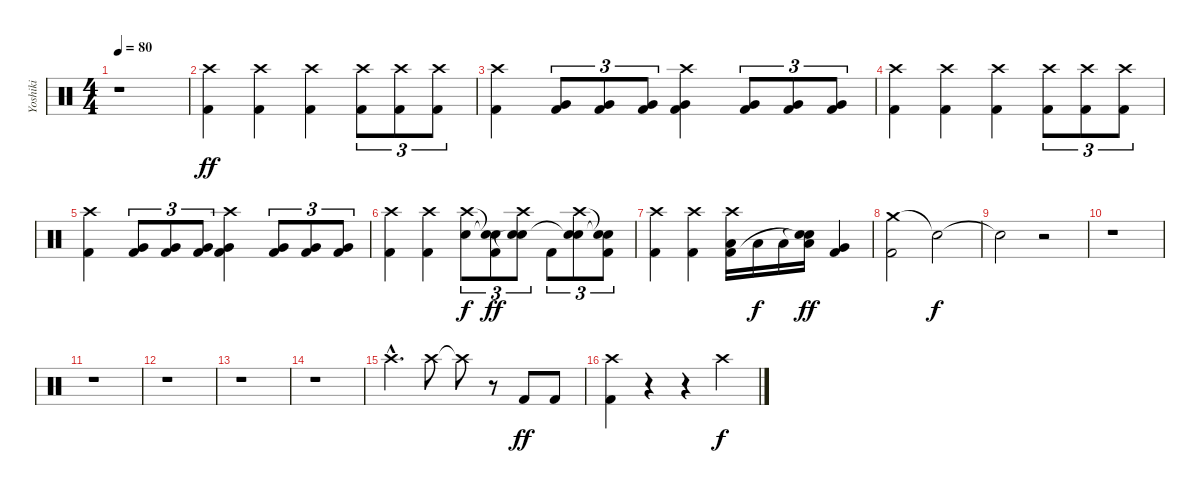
\track ("Yoshiki" "Yoshiki") {instrument percussion}
\staff {score}
\articulation defaults
\ts (4 4)
\tempo 80
\clef neutral
\ks c
r.1{dy ff} |
("Crash high (hit)" "Kick (hit) 2").4 ("Crash high (hit)" "Kick (hit) 2").4 ("Crash high (hit)" "Kick (hit) 2").4 ("Crash high (hit)" "Kick (hit) 2").8{tu (3 2)} ("Crash high (hit)" "Kick (hit) 2").8{tu (3 2)} ("Crash high (hit)" "Kick (hit) 2").8{tu (3 2)} |
("Crash high (hit)" "Kick (hit) 2").4 ("Very Low Tom (hit)" "Kick (hit) 2").8{tu (3 2)} ("Very Low Tom (hit)" "Kick (hit) 2").8{tu (3 2)} ("Very Low Tom (hit)" "Kick (hit) 2").8{tu (3 2)} ("Crash high (hit)" "Very Low Tom (hit)" "Kick (hit) 2").4 ("Very Low Tom (hit)" "Kick (hit) 2").8{tu (3 2)} ("Very Low Tom (hit)" "Kick (hit) 2").8{tu (3 2)} ("Very Low Tom (hit)" "Kick (hit) 2").8{tu (3 2)} |
("Crash high (hit)" "Kick (hit) 2").4 ("Crash high (hit)" "Kick (hit) 2").4 ("Crash high (hit)" "Kick (hit) 2").4 ("Crash high (hit)" "Kick (hit) 2").8{tu (3 2)} ("Crash high (hit)" "Kick (hit) 2").8{tu (3 2)} ("Crash high (hit)" "Kick (hit) 2").8{tu (3 2)} |
("Crash high (hit)" "Kick (hit) 2").4 ("Very Low Tom (hit)" "Kick (hit) 2").8{tu (3 2)} ("Very Low Tom (hit)" "Kick (hit) 2").8{tu (3 2)} ("Very Low Tom (hit)" "Kick (hit) 2").8{tu (3 2)} ("Crash high (hit)" "Very Low Tom (hit)" "Kick (hit) 2").4 ("Very Low Tom (hit)" "Kick (hit) 2").8{tu (3 2)} ("Very Low Tom (hit)" "Kick (hit) 2").8{tu (3 2)} ("Very Low Tom (hit)" "Kick (hit) 2").8{tu (3 2)} |
("Crash high (hit)" "Kick (hit) 2").4 ("Crash high (hit)" "Kick (hit) 2").4 ("Crash high (hit)" "Snare (hit) 2").8{tu (3 2) dy f} ("Snare (hit)"{t} "Snare (hit)"{t} "Kick (hit) 2").8{tu (3 2) dy ff} ("Crash high (hit)" "Snare (hit) 2" "Snare (hit)"{t}).8{tu (3 2)} "Kick (hit) 2".8{tu (3 2)} ("Crash high (hit)" "Snare (hit) 2" "Snare (hit)"{t}).8{tu (3 2)} ("Snare (hit)"{t} "Snare (hit)"{t} "Kick (hit) 2").8{tu (3 2)} |
("Crash high (hit)" "Kick (hit) 2").4 ("Crash high (hit)" "Kick (hit) 2").4 ("Crash high (hit)" "Low Tom (hit)" "Kick (hit) 2").16 "Low Tom (hit)".16{dy f} "Low Tom (hit)".16 ("Snare (hit)"{t} "Low Tom (hit)" "Snare (hit)"{t}).16{dy ff} ("Very Low Tom (hit)" "Kick (hit) 2").4 |
("Crash medium (hit)" "Kick (hit) 2").2 "Snare (hit)"{t}.2{dy f} |
"Snare (hit)"{t}.2 r.2 |
r.1 |
r.1 |
r.1 |
r.1 |
r.1 |
"Crash high (hit)"{hac}.4{d} "Crash high (hit)".8 "Crash high (hit)"{t}.8 r.8 "Kick (hit) 2".8{dy ff} "Kick (hit) 2".8 |
("Crash high (hit)" "Kick (hit) 2").4 r.4 r.4 "Crash high (hit)".4{dy f}
